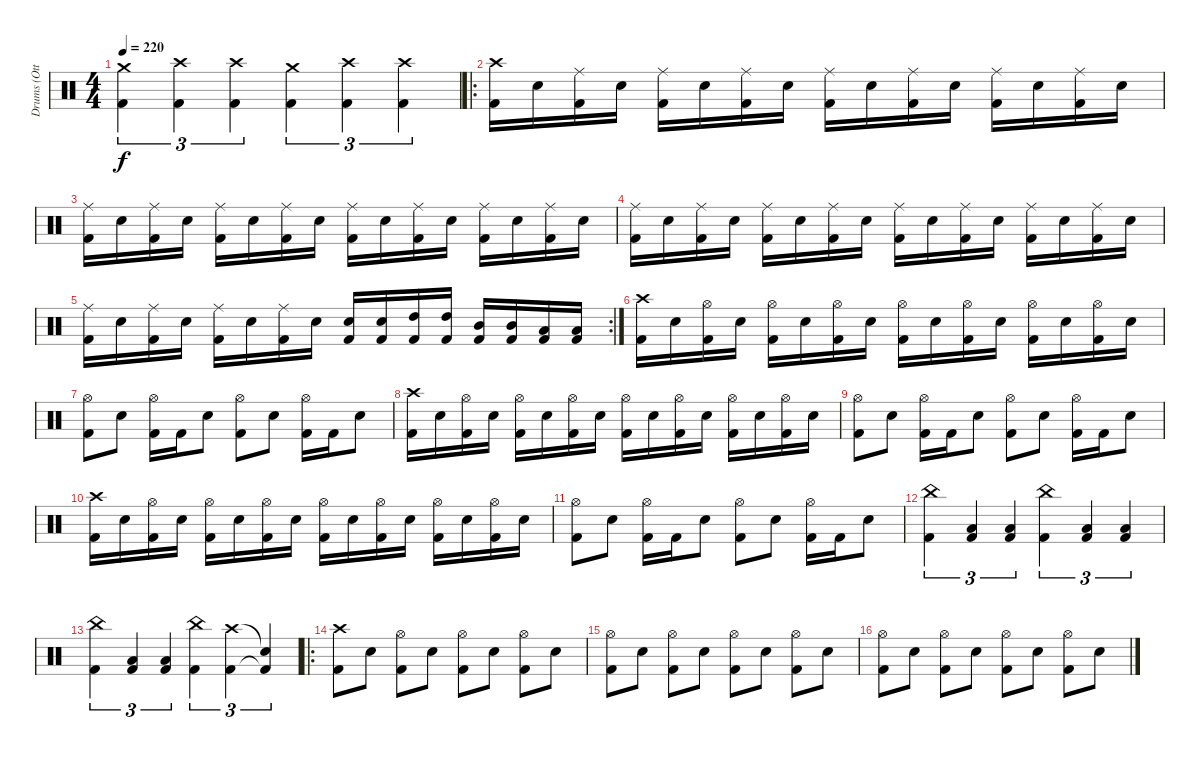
\track ("Drums (Otto)" "Drums (Ott") {instrument percussion}
\staff {score}
\articulation defaults
\ts (4 4)
\tempo 220
\clef neutral
\ks c
("Crash medium (hit)" "Kick (hit) 2").4{tu (3 2) dy f} ("Crash high (hit)" "Kick (hit) 2").4{tu (3 2)} ("Crash high (hit)" "Kick (hit) 2").4{tu (3 2)} ("Crash medium (hit)" "Kick (hit) 2").4{tu (3 2)} ("Crash high (hit)" "Kick (hit) 2").4{tu (3 2)} ("Crash high (hit)" "Kick (hit) 2").4{tu (3 2)} |
\ro
("Crash high (hit)" "Kick (hit) 2").16 "Electric Snare (hit)".16 ("Ride (middle)" "Kick (hit) 2").16 "Electric Snare (hit)".16 ("Ride (middle)" "Kick (hit) 2").16 "Electric Snare (hit)".16 ("Ride (middle)" "Kick (hit) 2").16 "Electric Snare (hit)".16 ("Ride (middle)" "Kick (hit) 2").16 "Electric Snare (hit)".16 ("Ride (middle)" "Kick (hit) 2").16 "Electric Snare (hit)".16 ("Ride (middle)" "Kick (hit) 2").16 "Electric Snare (hit)".16 ("Ride (middle)" "Kick (hit) 2").16 "Electric Snare (hit)".16 |
("Ride (middle)" "Kick (hit) 2").16 "Electric Snare (hit)".16 ("Ride (middle)" "Kick (hit) 2").16 "Electric Snare (hit)".16 ("Ride (middle)" "Kick (hit) 2").16 "Electric Snare (hit)".16 ("Ride (middle)" "Kick (hit) 2").16 "Electric Snare (hit)".16 ("Ride (middle)" "Kick (hit) 2").16 "Electric Snare (hit)".16 ("Ride (middle)" "Kick (hit) 2").16 "Electric Snare (hit)".16 ("Ride (middle)" "Kick (hit) 2").16 "Electric Snare (hit)".16 ("Ride (middle)" "Kick (hit) 2").16 "Electric Snare (hit)".16 |
("Ride (middle)" "Kick (hit) 2").16 "Electric Snare (hit)".16 ("Ride (middle)" "Kick (hit) 2").16 "Electric Snare (hit)".16 ("Ride (middle)" "Kick (hit) 2").16 "Electric Snare (hit)".16 ("Ride (middle)" "Kick (hit) 2").16 "Electric Snare (hit)".16 ("Ride (middle)" "Kick (hit) 2").16 "Electric Snare (hit)".16 ("Ride (middle)" "Kick (hit) 2").16 "Electric Snare (hit)".16 ("Ride (middle)" "Kick (hit) 2").16 "Electric Snare (hit)".16 ("Ride (middle)" "Kick (hit) 2").16 "Electric Snare (hit)".16 |
\rc 2
("Ride (middle)" "Kick (hit) 2").16 "Electric Snare (hit)".16 ("Ride (middle)" "Kick (hit) 2").16 "Electric Snare (hit)".16 ("Ride (middle)" "Kick (hit) 2").16 "Electric Snare (hit)".16 ("Ride (middle)" "Kick (hit) 2").16 "Electric Snare (hit)".16 ("Electric Snare (hit)" "Kick (hit) 2").16 ("Electric Snare (hit)" "Kick (hit) 2").16 ("High Tom (hit)" "Kick (hit) 2").16 ("High Tom (hit)" "Kick (hit) 2").16 ("Mid Tom (hit)" "Kick (hit) 2").16 ("Mid Tom (hit)" "Kick (hit) 2").16 ("Low Tom (hit)" "Kick (hit) 2").16 ("Low Tom (hit)" "Kick (hit) 2").16 |
("Crash high (hit)" "Kick (hit) 2").16 "Electric Snare (hit)".16 ("Hi-Hat (open)" "Kick (hit) 2").16 "Electric Snare (hit)".16 ("Hi-Hat (open)" "Kick (hit) 2").16 "Electric Snare (hit)".16 ("Hi-Hat (open)" "Kick (hit) 2").16 "Electric Snare (hit)".16 ("Hi-Hat (open)" "Kick (hit) 2").16 "Electric Snare (hit)".16 ("Hi-Hat (open)" "Kick (hit) 2").16 "Electric Snare (hit)".16 ("Hi-Hat (open)" "Kick (hit) 2").16 "Electric Snare (hit)".16 ("Hi-Hat (open)" "Kick (hit) 2").16 "Electric Snare (hit)".16 |
("Hi-Hat (open)" "Kick (hit) 2").8 "Electric Snare (hit)".8 ("Hi-Hat (open)" "Kick (hit) 2").16 "Kick (hit) 2".16 "Electric Snare (hit)".8 ("Hi-Hat (open)" "Kick (hit) 2").8 "Electric Snare (hit)".8 ("Hi-Hat (open)" "Kick (hit) 2").16 "Kick (hit) 2".16 "Electric Snare (hit)".8 |
("Crash high (hit)" "Kick (hit) 2").16 "Electric Snare (hit)".16 ("Hi-Hat (open)" "Kick (hit) 2").16 "Electric Snare (hit)".16 ("Hi-Hat (open)" "Kick (hit) 2").16 "Electric Snare (hit)".16 ("Hi-Hat (open)" "Kick (hit) 2").16 "Electric Snare (hit)".16 ("Hi-Hat (open)" "Kick (hit) 2").16 "Electric Snare (hit)".16 ("Hi-Hat (open)" "Kick (hit) 2").16 "Electric Snare (hit)".16 ("Hi-Hat (open)" "Kick (hit) 2").16 "Electric Snare (hit)".16 ("Hi-Hat (open)" "Kick (hit) 2").16 "Electric Snare (hit)".16 |
("Hi-Hat (open)" "Kick (hit) 2").8 "Electric Snare (hit)".8 ("Hi-Hat (open)" "Kick (hit) 2").16 "Kick (hit) 2".16 "Electric Snare (hit)".8 ("Hi-Hat (open)" "Kick (hit) 2").8 "Electric Snare (hit)".8 ("Hi-Hat (open)" "Kick (hit) 2").16 "Kick (hit) 2".16 "Electric Snare (hit)".8 |
("Crash high (hit)" "Kick (hit) 2").16 "Electric Snare (hit)".16 ("Hi-Hat (open)" "Kick (hit) 2").16 "Electric Snare (hit)".16 ("Hi-Hat (open)" "Kick (hit) 2").16 "Electric Snare (hit)".16 ("Hi-Hat (open)" "Kick (hit) 2").16 "Electric Snare (hit)".16 ("Hi-Hat (open)" "Kick (hit) 2").16 "Electric Snare (hit)".16 ("Hi-Hat (open)" "Kick (hit) 2").16 "Electric Snare (hit)".16 ("Hi-Hat (open)" "Kick (hit) 2").16 "Electric Snare (hit)".16 ("Hi-Hat (open)" "Kick (hit) 2").16 "Electric Snare (hit)".16 |
("Hi-Hat (open)" "Kick (hit) 2").8 "Electric Snare (hit)".8 ("Hi-Hat (open)" "Kick (hit) 2").16 "Kick (hit) 2".16 "Electric Snare (hit)".8 ("Hi-Hat (open)" "Kick (hit) 2").8 "Electric Snare (hit)".8 ("Hi-Hat (open)" "Kick (hit) 2").16 "Kick (hit) 2".16 "Electric Snare (hit)".8 |
("China (hit)" "Kick (hit) 2").4{tu (3 2)} ("Low Tom (hit)" "Kick (hit) 2").4{tu (3 2)} ("Low Tom (hit)" "Kick (hit) 2").4{tu (3 2)} ("China (hit)" "Kick (hit) 2").4{tu (3 2)} ("Low Tom (hit)" "Kick (hit) 2").4{tu (3 2)} ("Low Tom (hit)" "Kick (hit) 2").4{tu (3 2)} |
("China (hit)" "Kick (hit) 2").4{tu (3 2)} ("Low Tom (hit)" "Kick (hit) 2").4{tu (3 2)} ("Low Tom (hit)" "Kick (hit) 2").4{tu (3 2)} ("China (hit)" "Kick (hit) 2").4{tu (3 2)} ("Crash high (hit)" "Kick (hit) 2").4{tu (3 2)} ("Snare (hit)"{t} "Kick (hit) 2"{t}).4{tu (3 2)} |
\ro
("Crash high (hit)" "Kick (hit) 2").8 "Electric Snare (hit)".8 ("Hi-Hat (open)" "Kick (hit) 2").8 "Electric Snare (hit)".8 ("Hi-Hat (open)" "Kick (hit) 2").8 "Electric Snare (hit)".8 ("Hi-Hat (open)" "Kick (hit) 2").8 "Electric Snare (hit)".8 |
("Hi-Hat (open)" "Kick (hit) 2").8 "Electric Snare (hit)".8 ("Hi-Hat (open)" "Kick (hit) 2").8 "Electric Snare (hit)".8 ("Hi-Hat (open)" "Kick (hit) 2").8 "Electric Snare (hit)".8 ("Hi-Hat (open)" "Kick (hit) 2").8 "Electric Snare (hit)".8 |
("Hi-Hat (open)" "Kick (hit) 2").8 "Electric Snare (hit)".8 ("Hi-Hat (open)" "Kick (hit) 2").8 "Electric Snare (hit)".8 ("Hi-Hat (open)" "Kick (hit) 2").8 "Electric Snare (hit)".8 ("Hi-Hat (open)" "Kick (hit) 2").8 "Electric Snare (hit)".8
